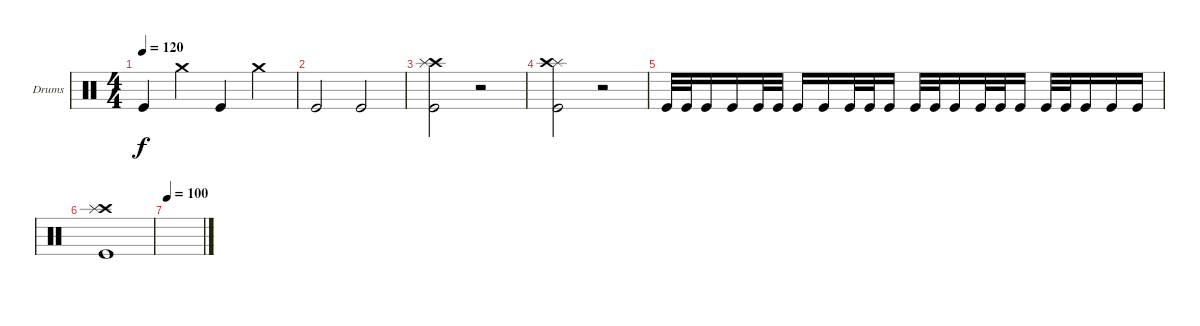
\bracketExtendMode groupsimilarinstruments
\firstSystemTrackNameOrientation horizontal
\otherSystemsTrackNameOrientation horizontal
\track ("Drumkit" "Drums") {instrument percussion}
\staff {score}
\articulation defaults
\ts (4 4)
\tempo 120
\clef neutral
\ks c "Kick (hit)".4{dy f} "Crash medium (hit)".4 "Kick (hit)".4 "Crash medium (hit)".4
|
"Kick (hit)".2 "Kick (hit)".2 |
("Kick (hit)" "Crash high (hit)" "Splash (hit)").2 r.2 |
("Kick (hit)" "Splash (hit)" "Crash high (hit)").2 r.2 |
"Kick (hit)".32 "Kick (hit)".32 "Kick (hit)".16 "Kick (hit)".16 "Kick (hit)".32 "Kick (hit)".32 "Kick (hit)".16 "Kick (hit)".16 "Kick (hit)".32 "Kick (hit)".32 "Kick (hit)".16 "Kick (hit)".32 "Kick (hit)".32 "Kick (hit)".16 "Kick (hit)".32 "Kick (hit)".32 "Kick (hit)".16 "Kick (hit)".32 "Kick (hit)".32 "Kick (hit)".16 "Kick (hit)".16 "Kick (hit)".16 |
("Kick (hit)" "Crash high (hit)" "Splash (hit)").1 |
\tempo (100 0.00625)
